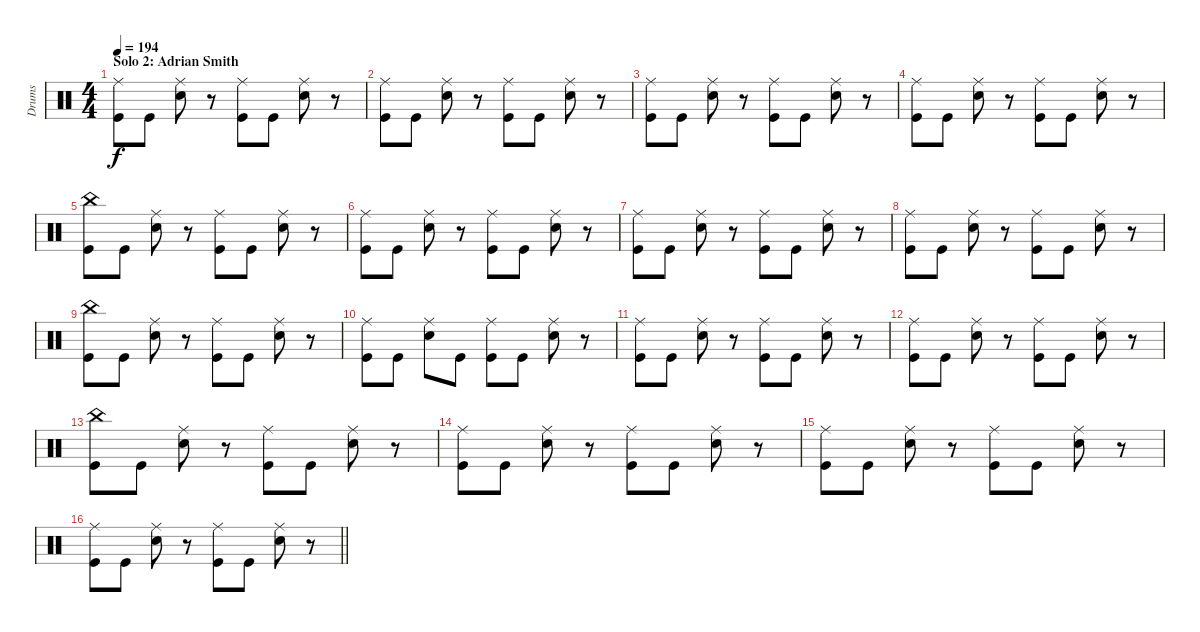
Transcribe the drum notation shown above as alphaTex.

\track ("Drums" "Drums") {instrument percussion}
\staff {score}
\articulation defaults
\ts (4 4)
\section ("" "Solo 2: Adrian Smith")
\tempo 194
\clef neutral
\ks aminor
("Ride (middle)" "Kick (hit)").8{dy f} "Kick (hit)".8 ("Ride (middle)" "Snare (hit) 2").8 r.8 ("Ride (middle)" "Kick (hit)").8 "Kick (hit)".8 ("Ride (middle)" "Snare (hit) 2").8 r.8 |
("Ride (middle)" "Kick (hit)").8 "Kick (hit)".8 ("Ride (middle)" "Snare (hit) 2").8 r.8 ("Ride (middle)" "Kick (hit)").8 "Kick (hit)".8 ("Ride (middle)" "Snare (hit) 2").8 r.8 |
("Ride (middle)" "Kick (hit)").8 "Kick (hit)".8 ("Ride (middle)" "Snare (hit) 2").8 r.8 ("Ride (middle)" "Kick (hit)").8 "Kick (hit)".8 ("Ride (middle)" "Snare (hit) 2").8 r.8 |
("Ride (middle)" "Kick (hit)").8 "Kick (hit)".8 ("Ride (middle)" "Snare (hit) 2").8 r.8 ("Ride (middle)" "Kick (hit)").8 "Kick (hit)".8 ("Ride (middle)" "Snare (hit) 2").8 r.8 |
("China (hit)" "Kick (hit)").8 "Kick (hit)".8 ("Ride (middle)" "Snare (hit) 2").8 r.8 ("Ride (middle)" "Kick (hit)").8 "Kick (hit)".8 ("Ride (middle)" "Snare (hit) 2").8 r.8 |
("Ride (middle)" "Kick (hit)").8 "Kick (hit)".8 ("Ride (middle)" "Snare (hit) 2").8 r.8 ("Ride (middle)" "Kick (hit)").8 "Kick (hit)".8 ("Ride (middle)" "Snare (hit) 2").8 r.8 |
("Ride (middle)" "Kick (hit)").8 "Kick (hit)".8 ("Ride (middle)" "Snare (hit) 2").8 r.8 ("Ride (middle)" "Kick (hit)").8 "Kick (hit)".8 ("Ride (middle)" "Snare (hit) 2").8 r.8 |
("Ride (middle)" "Kick (hit)").8 "Kick (hit)".8 ("Ride (middle)" "Snare (hit) 2").8 r.8 ("Ride (middle)" "Kick (hit)").8 "Kick (hit)".8 ("Ride (middle)" "Snare (hit) 2").8 r.8 |
("China (hit)" "Kick (hit)").8 "Kick (hit)".8 ("Ride (middle)" "Snare (hit) 2").8 r.8 ("Ride (middle)" "Kick (hit)").8 "Kick (hit)".8 ("Ride (middle)" "Snare (hit) 2").8 r.8 |
("Ride (middle)" "Kick (hit)").8 "Kick (hit)".8 ("Ride (middle)" "Snare (hit) 2").8 "Kick (hit)".8 ("Ride (middle)" "Kick (hit)").8 "Kick (hit)".8 ("Ride (middle)" "Snare (hit) 2").8 r.8 |
("Ride (middle)" "Kick (hit)").8 "Kick (hit)".8 ("Ride (middle)" "Snare (hit) 2").8 r.8 ("Ride (middle)" "Kick (hit)").8 "Kick (hit)".8 ("Ride (middle)" "Snare (hit) 2").8 r.8 |
("Ride (middle)" "Kick (hit)").8 "Kick (hit)".8 ("Ride (middle)" "Snare (hit) 2").8 r.8 ("Ride (middle)" "Kick (hit)").8 "Kick (hit)".8 ("Ride (middle)" "Snare (hit) 2").8 r.8 |
("China (hit)" "Kick (hit)").8 "Kick (hit)".8 ("Ride (middle)" "Snare (hit) 2").8 r.8 ("Ride (middle)" "Kick (hit)").8 "Kick (hit)".8 ("Ride (middle)" "Snare (hit) 2").8 r.8 |
("Ride (middle)" "Kick (hit)").8 "Kick (hit)".8 ("Ride (middle)" "Snare (hit) 2").8 r.8 ("Ride (middle)" "Kick (hit)").8 "Kick (hit)".8 ("Ride (middle)" "Snare (hit) 2").8 r.8 |
("Ride (middle)" "Kick (hit)").8 "Kick (hit)".8 ("Ride (middle)" "Snare (hit) 2").8 r.8 ("Ride (middle)" "Kick (hit)").8 "Kick (hit)".8 ("Ride (middle)" "Snare (hit) 2").8 r.8 |
\barLineRight lightlight
("Ride (middle)" "Kick (hit)").8 "Kick (hit)".8 ("Ride (middle)" "Snare (hit) 2").8 r.8 ("Ride (middle)" "Kick (hit)").8 "Kick (hit)".8 ("Ride (middle)" "Snare (hit) 2").8 r.8
